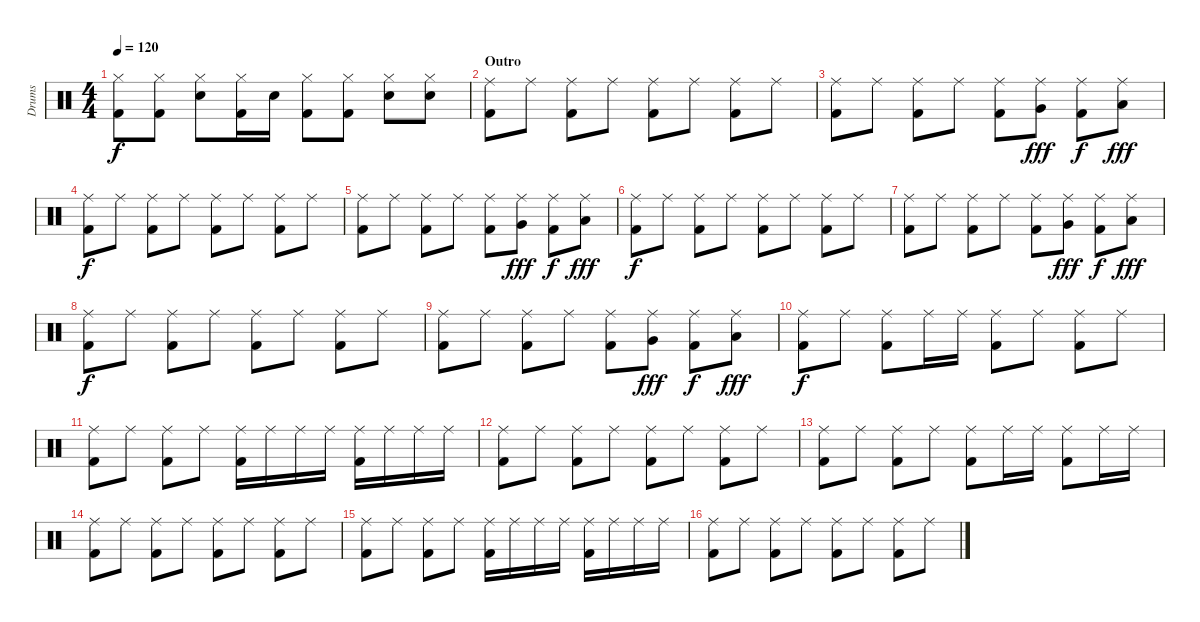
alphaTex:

\track ("Drums" "Drums") {instrument percussion}
\staff {score}
\articulation defaults
\ts (4 4)
\tempo 120
\clef neutral
\ks c
("Hi-Hat (closed)" "Kick (hit) 2").8{dy f} ("Hi-Hat (closed)" "Kick (hit) 2").8 ("Hi-Hat (closed)" "Electric Snare (hit)").8 ("Hi-Hat (closed)" "Kick (hit) 2").16 "Electric Snare (hit)".16 ("Hi-Hat (closed)" "Kick (hit) 2").8 ("Hi-Hat (closed)" "Kick (hit) 2").8 ("Hi-Hat (closed)" "Electric Snare (hit)").8 ("Hi-Hat (closed)" "Electric Snare (hit)").8 |
\section ("" "Outro")
("Ride (middle)" "Kick (hit) 2").8 "Ride (middle)".8 ("Ride (middle)" "Kick (hit) 2").8 "Ride (middle)".8 ("Ride (middle)" "Kick (hit) 2").8 "Ride (middle)".8 ("Ride (middle)" "Kick (hit) 2").8 "Ride (middle)".8 |
("Ride (middle)" "Kick (hit) 2").8 "Ride (middle)".8 ("Ride (middle)" "Kick (hit) 2").8 "Ride (middle)".8 ("Ride (middle)" "Kick (hit) 2").8 ("Ride (middle)" "Very Low Tom (hit)").8{dy fff} ("Ride (middle)" "Kick (hit) 2").8{dy f} ("Ride (middle)" "Low Floor Tom (hit)").8{dy fff} |
("Ride (middle)" "Kick (hit) 2").8{dy f} "Ride (middle)".8 ("Ride (middle)" "Kick (hit) 2").8 "Ride (middle)".8 ("Ride (middle)" "Kick (hit) 2").8 "Ride (middle)".8 ("Ride (middle)" "Kick (hit) 2").8 "Ride (middle)".8 |
("Ride (middle)" "Kick (hit) 2").8 "Ride (middle)".8 ("Ride (middle)" "Kick (hit) 2").8 "Ride (middle)".8 ("Ride (middle)" "Kick (hit) 2").8 ("Ride (middle)" "Very Low Tom (hit)").8{dy fff} ("Ride (middle)" "Kick (hit) 2").8{dy f} ("Ride (middle)" "Low Floor Tom (hit)").8{dy fff} |
("Ride (middle)" "Kick (hit) 2").8{dy f} "Ride (middle)".8 ("Ride (middle)" "Kick (hit) 2").8 "Ride (middle)".8 ("Ride (middle)" "Kick (hit) 2").8 "Ride (middle)".8 ("Ride (middle)" "Kick (hit) 2").8 "Ride (middle)".8 |
("Ride (middle)" "Kick (hit) 2").8 "Ride (middle)".8 ("Ride (middle)" "Kick (hit) 2").8 "Ride (middle)".8 ("Ride (middle)" "Kick (hit) 2").8 ("Ride (middle)" "Very Low Tom (hit)").8{dy fff} ("Ride (middle)" "Kick (hit) 2").8{dy f} ("Ride (middle)" "Low Floor Tom (hit)").8{dy fff} |
("Ride (middle)" "Kick (hit) 2").8{dy f} "Ride (middle)".8 ("Ride (middle)" "Kick (hit) 2").8 "Ride (middle)".8 ("Ride (middle)" "Kick (hit) 2").8 "Ride (middle)".8 ("Ride (middle)" "Kick (hit) 2").8 "Ride (middle)".8 |
("Ride (middle)" "Kick (hit) 2").8 "Ride (middle)".8 ("Ride (middle)" "Kick (hit) 2").8 "Ride (middle)".8 ("Ride (middle)" "Kick (hit) 2").8 ("Ride (middle)" "Very Low Tom (hit)").8{dy fff} ("Ride (middle)" "Kick (hit) 2").8{dy f} ("Ride (middle)" "Low Floor Tom (hit)").8{dy fff} |
("Ride (middle)" "Kick (hit) 2").8{dy f} "Ride (middle)".8 ("Ride (middle)" "Kick (hit) 2").8 "Ride (middle)".16 "Ride (middle)".16 ("Ride (middle)" "Kick (hit) 2").8 "Ride (middle)".8 ("Ride (middle)" "Kick (hit) 2").8 "Ride (middle)".8 |
("Ride (middle)" "Kick (hit) 2").8 "Ride (middle)".8 ("Ride (middle)" "Kick (hit) 2").8 "Ride (middle)".8 ("Ride (middle)" "Kick (hit) 2").16 "Ride (middle)".16 "Ride (middle)".16 "Ride (middle)".16 ("Ride (middle)" "Kick (hit) 2").16 "Ride (middle)".16 "Ride (middle)".16 "Ride (middle)".16 |
("Ride (middle)" "Kick (hit) 2").8 "Ride (middle)".8 ("Ride (middle)" "Kick (hit) 2").8 "Ride (middle)".8 ("Ride (middle)" "Kick (hit) 2").8 "Ride (middle)".8 ("Ride (middle)" "Kick (hit) 2").8 "Ride (middle)".8 |
("Ride (middle)" "Kick (hit) 2").8 "Ride (middle)".8 ("Ride (middle)" "Kick (hit) 2").8 "Ride (middle)".8 ("Ride (middle)" "Kick (hit) 2").8 "Ride (middle)".16 "Ride (middle)".16 ("Ride (middle)" "Kick (hit) 2").8 "Ride (middle)".16 "Ride (middle)".16 |
("Ride (middle)" "Kick (hit) 2").8 "Ride (middle)".8 ("Ride (middle)" "Kick (hit) 2").8 "Ride (middle)".8 ("Ride (middle)" "Kick (hit) 2").8 "Ride (middle)".8 ("Ride (middle)" "Kick (hit) 2").8 "Ride (middle)".8 |
("Ride (middle)" "Kick (hit) 2").8 "Ride (middle)".8 ("Ride (middle)" "Kick (hit) 2").8 "Ride (middle)".8 ("Ride (middle)" "Kick (hit) 2").16 "Ride (middle)".16 "Ride (middle)".16 "Ride (middle)".16 ("Ride (middle)" "Kick (hit) 2").16 "Ride (middle)".16 "Ride (middle)".16 "Ride (middle)".16 |
("Ride (middle)" "Kick (hit) 2").8 "Ride (middle)".8 ("Ride (middle)" "Kick (hit) 2").8 "Ride (middle)".8 ("Ride (middle)" "Kick (hit) 2").8 "Ride (middle)".8 ("Ride (middle)" "Kick (hit) 2").8 "Ride (middle)".8
